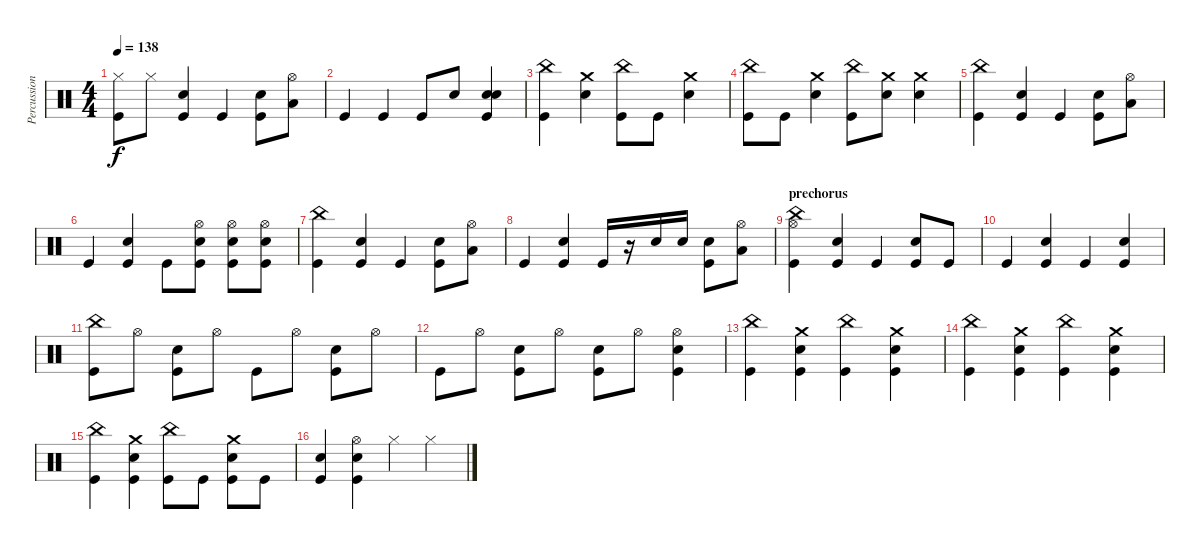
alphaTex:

\track ("Percussion" "Percussion") {instrument percussion}
\staff {score}
\articulation defaults
\ts (4 4)
\tempo 138
\clef neutral
\ks c
("Hi-Hat (closed)" "Kick (hit)").8{dy f} "Hi-Hat (closed)".8 ("Snare (hit) 2" "Kick (hit)").4 "Kick (hit)".4 ("Snare (hit) 2" "Kick (hit)").8 ("Hi-Hat (open)" "Low Tom (hit)").8 |
"Kick (hit)".4 "Kick (hit)".4 "Kick (hit)".8 "Snare (hit) 2".8 ("Snare (hit) 2" "Snare (hit) 2" "Kick (hit)").4 |
("China (hit)" "Kick (hit)").4 ("Crash medium (hit)" "Snare (hit) 2").4 ("China (hit)" "Kick (hit)").8 "Kick (hit)".8 ("Crash medium (hit)" "Snare (hit) 2").4 |
("China (hit)" "Kick (hit)").8 "Kick (hit)".8 ("Crash medium (hit)" "Snare (hit) 2").4 ("China (hit)" "Kick (hit)").8 ("Crash medium (hit)" "Snare (hit) 2").8 ("Crash medium (hit)" "Snare (hit) 2").4 |
("China (hit)" "Kick (hit)").4 ("Snare (hit) 2" "Kick (hit)").4 "Kick (hit)".4 ("Snare (hit) 2" "Kick (hit)").8 ("Hi-Hat (open)" "Low Tom (hit)").8 |
"Kick (hit)".4 ("Snare (hit) 2" "Kick (hit)").4 "Kick (hit)".8 ("Hi-Hat (open)" "Snare (hit) 2" "Kick (hit)").8 ("Hi-Hat (open)" "Snare (hit) 2" "Kick (hit)").8 ("Hi-Hat (open)" "Snare (hit) 2" "Kick (hit)").8 |
("China (hit)" "Kick (hit)").4 ("Snare (hit) 2" "Kick (hit)").4 "Kick (hit)".4 ("Snare (hit) 2" "Kick (hit)").8 ("Hi-Hat (open)" "Low Tom (hit)").8 |
"Kick (hit)".4 ("Snare (hit) 2" "Kick (hit)").4 "Kick (hit)".16 r.16 "Snare (hit) 2".16 "Snare (hit) 2".16 ("Snare (hit) 2" "Kick (hit)").8 ("Hi-Hat (open)" "Low Tom (hit)").8 |
\section ("" "prechorus")
("China (hit)" "Hi-Hat (open)" "Kick (hit)").4 ("Snare (hit) 2" "Kick (hit)").4 "Kick (hit)".4 ("Snare (hit) 2" "Kick (hit)").8 "Kick (hit)".8 |
"Kick (hit)".4 ("Snare (hit) 2" "Kick (hit)").4 "Kick (hit)".4 ("Snare (hit) 2" "Kick (hit)").4 |
("China (hit)" "Kick (hit)").8 "Hi-Hat (open)".8 ("Snare (hit) 2" "Kick (hit)").8 "Hi-Hat (open)".8 "Kick (hit)".8 "Hi-Hat (open)".8 ("Snare (hit) 2" "Kick (hit)").8 "Hi-Hat (open)".8 |
"Kick (hit)".8 "Hi-Hat (open)".8 ("Snare (hit) 2" "Kick (hit)").8 "Hi-Hat (open)".8 ("Snare (hit) 2" "Kick (hit)").8 "Hi-Hat (open)".8 ("Hi-Hat (open)" "Snare (hit) 2" "Kick (hit)").4 |
("China (hit)" "Kick (hit)").4 ("Crash medium (hit)" "Snare (hit) 2" "Kick (hit)").4 ("China (hit)" "Kick (hit)").4 ("Crash medium (hit)" "Snare (hit) 2" "Kick (hit)").4 |
("China (hit)" "Kick (hit)").4 ("Crash medium (hit)" "Snare (hit) 2" "Kick (hit)").4 ("China (hit)" "Kick (hit)").4 ("Crash medium (hit)" "Snare (hit) 2" "Kick (hit)").4 |
("China (hit)" "Kick (hit)").4 ("Crash medium (hit)" "Snare (hit) 2" "Kick (hit)").4 ("China (hit)" "Kick (hit)").8 "Kick (hit)".8 ("Crash medium (hit)" "Snare (hit) 2" "Kick (hit)").8 "Kick (hit)".8 |
("Snare (hit) 2" "Kick (hit)").4 ("Hi-Hat (open)" "Snare (hit) 2" "Kick (hit)").4 "Hi-Hat (closed)".4 "Hi-Hat (closed)".4
